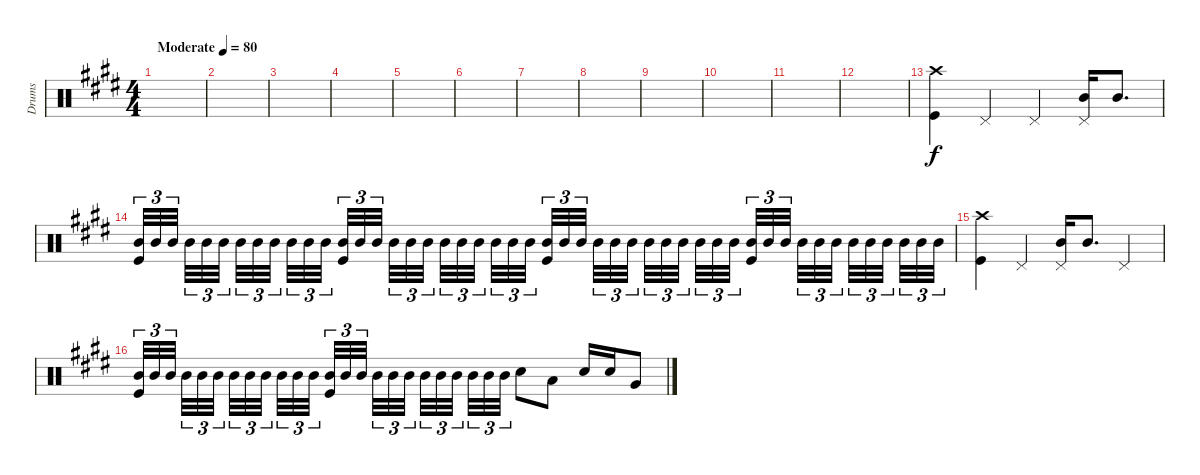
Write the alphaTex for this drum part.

\track ("Drums" "Drums") {instrument percussion}
\staff {score}
\articulation defaults
\ts (4 4)
\tempo (80 "Moderate")
\clef neutral
\ks e
|
|
|
|
|
|
|
|
|
|
|
|
("Crash high (hit)" "Kick (hit)").4 "Pedal Hi-Hat (hit)".4 "Pedal Hi-Hat (hit)".4 ("Pedal Hi-Hat (hit)" "Mid Tom (hit)").16 "Mid Tom (hit)".8{d} |
("Mid Tom (hit)" "Kick (hit)").32{tu (3 2)} "Mid Tom (hit)".32{tu (3 2)} "Mid Tom (hit)".32{tu (3 2) beam splitsecondary} "Mid Tom (hit)".32{tu (3 2)} "Mid Tom (hit)".32{tu (3 2)} "Mid Tom (hit)".32{tu (3 2) beam splitsecondary} "Mid Tom (hit)".32{tu (3 2)} "Mid Tom (hit)".32{tu (3 2)} "Mid Tom (hit)".32{tu (3 2) beam splitsecondary} "Mid Tom (hit)".32{tu (3 2)} "Mid Tom (hit)".32{tu (3 2)} "Mid Tom (hit)".32{tu (3 2)} ("Mid Tom (hit)" "Kick (hit)").32{tu (3 2)} "Mid Tom (hit)".32{tu (3 2)} "Mid Tom (hit)".32{tu (3 2) beam splitsecondary} "Mid Tom (hit)".32{tu (3 2)} "Mid Tom (hit)".32{tu (3 2)} "Mid Tom (hit)".32{tu (3 2) beam splitsecondary} "Mid Tom (hit)".32{tu (3 2)} "Mid Tom (hit)".32{tu (3 2)} "Mid Tom (hit)".32{tu (3 2) beam splitsecondary} "Mid Tom (hit)".32{tu (3 2)} "Mid Tom (hit)".32{tu (3 2)} "Mid Tom (hit)".32{tu (3 2)} ("Mid Tom (hit)" "Kick (hit)").32{tu (3 2)} "Mid Tom (hit)".32{tu (3 2)} "Mid Tom (hit)".32{tu (3 2) beam splitsecondary} "Mid Tom (hit)".32{tu (3 2)} "Mid Tom (hit)".32{tu (3 2)} "Mid Tom (hit)".32{tu (3 2) beam splitsecondary} "Mid Tom (hit)".32{tu (3 2)} "Mid Tom (hit)".32{tu (3 2)} "Mid Tom (hit)".32{tu (3 2) beam splitsecondary} "Mid Tom (hit)".32{tu (3 2)} "Mid Tom (hit)".32{tu (3 2)} "Mid Tom (hit)".32{tu (3 2)} ("Mid Tom (hit)" "Kick (hit)").32{tu (3 2)} "Mid Tom (hit)".32{tu (3 2)} "Mid Tom (hit)".32{tu (3 2) beam splitsecondary} "Mid Tom (hit)".32{tu (3 2)} "Mid Tom (hit)".32{tu (3 2)} "Mid Tom (hit)".32{tu (3 2) beam splitsecondary} "Mid Tom (hit)".32{tu (3 2)} "Mid Tom (hit)".32{tu (3 2)} "Mid Tom (hit)".32{tu (3 2) beam splitsecondary} "Mid Tom (hit)".32{tu (3 2)} "Mid Tom (hit)".32{tu (3 2)} "Mid Tom (hit)".32{tu (3 2)} |
("Crash high (hit)" "Kick (hit)").4 "Pedal Hi-Hat (hit)".4 ("Pedal Hi-Hat (hit)" "Mid Tom (hit)").16 "Mid Tom (hit)".8{d} "Pedal Hi-Hat (hit)".4 |
("Mid Tom (hit)" "Kick (hit)").32{tu (3 2)} "Mid Tom (hit)".32{tu (3 2)} "Mid Tom (hit)".32{tu (3 2) beam splitsecondary} "Mid Tom (hit)".32{tu (3 2)} "Mid Tom (hit)".32{tu (3 2)} "Mid Tom (hit)".32{tu (3 2) beam splitsecondary} "Mid Tom (hit)".32{tu (3 2)} "Mid Tom (hit)".32{tu (3 2)} "Mid Tom (hit)".32{tu (3 2) beam splitsecondary} "Mid Tom (hit)".32{tu (3 2)} "Mid Tom (hit)".32{tu (3 2)} "Mid Tom (hit)".32{tu (3 2)} ("Mid Tom (hit)" "Kick (hit)").32{tu (3 2)} "Mid Tom (hit)".32{tu (3 2)} "Mid Tom (hit)".32{tu (3 2) beam splitsecondary} "Mid Tom (hit)".32{tu (3 2)} "Mid Tom (hit)".32{tu (3 2)} "Mid Tom (hit)".32{tu (3 2) beam splitsecondary} "Mid Tom (hit)".32{tu (3 2)} "Mid Tom (hit)".32{tu (3 2)} "Mid Tom (hit)".32{tu (3 2) beam splitsecondary} "Mid Tom (hit)".32{tu (3 2)} "Mid Tom (hit)".32{tu (3 2)} "Mid Tom (hit)".32{tu (3 2)} "Snare (hit) 2".8 "Low Tom (hit)".8 "Snare (hit) 2".16 "Snare (hit) 2".16 "Very Low Tom (hit)".8
